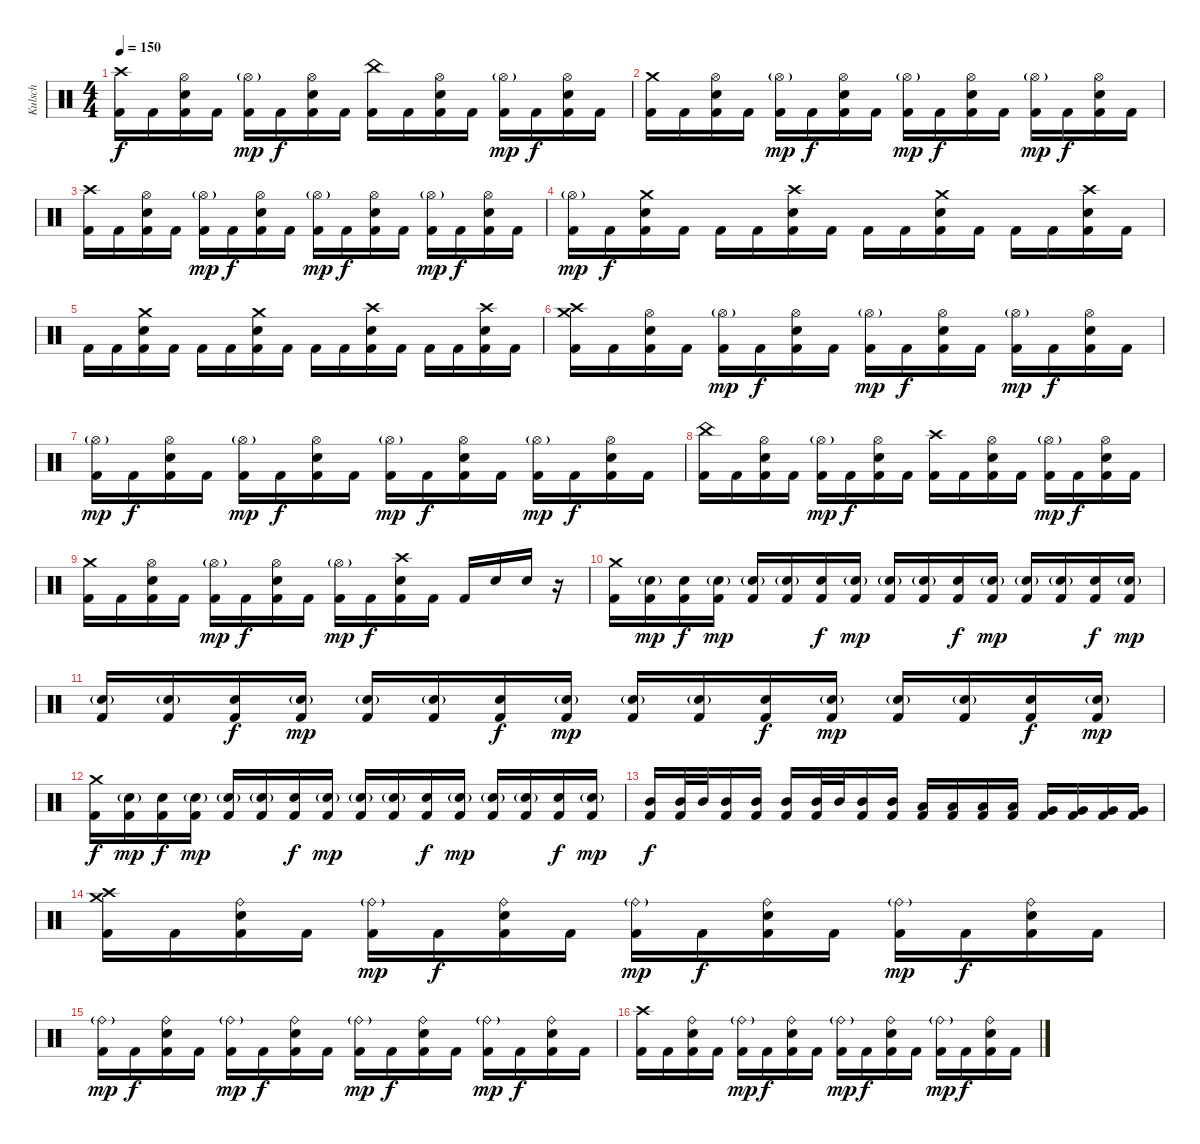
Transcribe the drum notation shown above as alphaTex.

\track ("Kulsch" "Kulsch") {instrument percussion}
\staff {score}
\articulation defaults
\ts (4 4)
\tempo 150
\clef neutral
\ks c
("Crash high (hit)" "Kick (hit) 2").16{dy f} "Kick (hit) 2".16 ("Hi-Hat (open)" "Snare (hit) 2" "Kick (hit) 2").16 "Kick (hit) 2".16 ("Hi-Hat (open)"{g} "Kick (hit) 2").16{dy mp} "Kick (hit) 2".16{dy f} ("Hi-Hat (open)" "Snare (hit) 2" "Kick (hit) 2").16 "Kick (hit) 2".16 ("China (hit)" "Kick (hit) 2").16 "Kick (hit) 2".16 ("Hi-Hat (open)" "Snare (hit) 2" "Kick (hit) 2").16 "Kick (hit) 2".16 ("Hi-Hat (open)"{g} "Kick (hit) 2").16{dy mp} "Kick (hit) 2".16{dy f} ("Hi-Hat (open)" "Snare (hit) 2" "Kick (hit) 2").16 "Kick (hit) 2".16 |
("Crash medium (hit)" "Kick (hit) 2").16 "Kick (hit) 2".16 ("Hi-Hat (open)" "Snare (hit) 2" "Kick (hit) 2").16 "Kick (hit) 2".16 ("Hi-Hat (open)"{g} "Kick (hit) 2").16{dy mp} "Kick (hit) 2".16{dy f} ("Hi-Hat (open)" "Snare (hit) 2" "Kick (hit) 2").16 "Kick (hit) 2".16 ("Hi-Hat (open)"{g} "Kick (hit) 2").16{dy mp} "Kick (hit) 2".16{dy f} ("Hi-Hat (open)" "Snare (hit) 2" "Kick (hit) 2").16 "Kick (hit) 2".16 ("Hi-Hat (open)"{g} "Kick (hit) 2").16{dy mp} "Kick (hit) 2".16{dy f} ("Hi-Hat (open)" "Snare (hit) 2" "Kick (hit) 2").16 "Kick (hit) 2".16 |
("Crash high (hit)" "Kick (hit) 2").16 "Kick (hit) 2".16 ("Hi-Hat (open)" "Snare (hit) 2" "Kick (hit) 2").16 "Kick (hit) 2".16 ("Hi-Hat (open)"{g} "Kick (hit) 2").16{dy mp} "Kick (hit) 2".16{dy f} ("Hi-Hat (open)" "Snare (hit) 2" "Kick (hit) 2").16 "Kick (hit) 2".16 ("Hi-Hat (open)"{g} "Kick (hit) 2").16{dy mp} "Kick (hit) 2".16{dy f} ("Hi-Hat (open)" "Snare (hit) 2" "Kick (hit) 2").16 "Kick (hit) 2".16 ("Hi-Hat (open)"{g} "Kick (hit) 2").16{dy mp} "Kick (hit) 2".16{dy f} ("Hi-Hat (open)" "Snare (hit) 2" "Kick (hit) 2").16 "Kick (hit) 2".16 |
("Hi-Hat (open)"{g} "Kick (hit) 2").16{dy mp} "Kick (hit) 2".16{dy f} ("Crash medium (hit)" "Snare (hit) 2" "Kick (hit) 2").16 "Kick (hit) 2".16 "Kick (hit) 2".16 "Kick (hit) 2".16 ("Crash high (hit)" "Snare (hit) 2" "Kick (hit) 2").16 "Kick (hit) 2".16 "Kick (hit) 2".16 "Kick (hit) 2".16 ("Crash medium (hit)" "Snare (hit) 2" "Kick (hit) 2").16 "Kick (hit) 2".16 "Kick (hit) 2".16 "Kick (hit) 2".16 ("Crash high (hit)" "Snare (hit) 2" "Kick (hit) 2").16 "Kick (hit) 2".16 |
"Kick (hit) 2".16 "Kick (hit) 2".16 ("Crash medium (hit)" "Snare (hit) 2" "Kick (hit) 2").16 "Kick (hit) 2".16 "Kick (hit) 2".16 "Kick (hit) 2".16 ("Crash medium (hit)" "Snare (hit) 2" "Kick (hit) 2").16 "Kick (hit) 2".16 "Kick (hit) 2".16 "Kick (hit) 2".16 ("Crash high (hit)" "Snare (hit) 2" "Kick (hit) 2").16 "Kick (hit) 2".16 "Kick (hit) 2".16 "Kick (hit) 2".16 ("Crash high (hit)" "Snare (hit) 2" "Kick (hit) 2").16 "Kick (hit) 2".16 |
("Crash medium (hit)" "Crash high (hit)" "Kick (hit) 2").16 "Kick (hit) 2".16 ("Hi-Hat (open)" "Snare (hit) 2" "Kick (hit) 2").16 "Kick (hit) 2".16 ("Hi-Hat (open)"{g} "Kick (hit) 2").16{dy mp} "Kick (hit) 2".16{dy f} ("Hi-Hat (open)" "Snare (hit) 2" "Kick (hit) 2").16 "Kick (hit) 2".16 ("Hi-Hat (open)"{g} "Kick (hit) 2").16{dy mp} "Kick (hit) 2".16{dy f} ("Hi-Hat (open)" "Snare (hit) 2" "Kick (hit) 2").16 "Kick (hit) 2".16 ("Hi-Hat (open)"{g} "Kick (hit) 2").16{dy mp} "Kick (hit) 2".16{dy f} ("Hi-Hat (open)" "Snare (hit) 2" "Kick (hit) 2").16 "Kick (hit) 2".16 |
("Hi-Hat (open)"{g} "Kick (hit) 2").16{dy mp} "Kick (hit) 2".16{dy f} ("Hi-Hat (open)" "Snare (hit) 2" "Kick (hit) 2").16 "Kick (hit) 2".16 ("Hi-Hat (open)"{g} "Kick (hit) 2").16{dy mp} "Kick (hit) 2".16{dy f} ("Hi-Hat (open)" "Snare (hit) 2" "Kick (hit) 2").16 "Kick (hit) 2".16 ("Hi-Hat (open)"{g} "Kick (hit) 2").16{dy mp} "Kick (hit) 2".16{dy f} ("Hi-Hat (open)" "Snare (hit) 2" "Kick (hit) 2").16 "Kick (hit) 2".16 ("Hi-Hat (open)"{g} "Kick (hit) 2").16{dy mp} "Kick (hit) 2".16{dy f} ("Hi-Hat (open)" "Snare (hit) 2" "Kick (hit) 2").16 "Kick (hit) 2".16 |
("China (hit)" "Kick (hit) 2").16 "Kick (hit) 2".16 ("Hi-Hat (open)" "Snare (hit) 2" "Kick (hit) 2").16 "Kick (hit) 2".16 ("Hi-Hat (open)"{g} "Kick (hit) 2").16{dy mp} "Kick (hit) 2".16{dy f} ("Hi-Hat (open)" "Snare (hit) 2" "Kick (hit) 2").16 "Kick (hit) 2".16 ("Crash high (hit)" "Kick (hit) 2").16 "Kick (hit) 2".16 ("Hi-Hat (open)" "Snare (hit) 2" "Kick (hit) 2").16 "Kick (hit) 2".16 ("Hi-Hat (open)"{g} "Kick (hit) 2").16{dy mp} "Kick (hit) 2".16{dy f} ("Hi-Hat (open)" "Snare (hit) 2" "Kick (hit) 2").16 "Kick (hit) 2".16 |
("Crash medium (hit)" "Kick (hit) 2").16 "Kick (hit) 2".16 ("Hi-Hat (open)" "Snare (hit) 2" "Kick (hit) 2").16 "Kick (hit) 2".16 ("Hi-Hat (open)"{g} "Kick (hit) 2").16{dy mp} "Kick (hit) 2".16{dy f} ("Hi-Hat (open)" "Snare (hit) 2" "Kick (hit) 2").16 "Kick (hit) 2".16 ("Hi-Hat (open)"{g} "Kick (hit) 2").16{dy mp} "Kick (hit) 2".16{dy f} ("Crash high (hit)" "Snare (hit) 2" "Kick (hit) 2").16 "Kick (hit) 2".16 "Kick (hit) 2".16 "Snare (hit) 2".16 "Snare (hit) 2".16 r.16 |
("Crash medium (hit)" "Kick (hit) 2").16 ("Snare (hit) 2"{g} "Kick (hit) 2").16{dy mp} ("Snare (hit) 2" "Kick (hit) 2").16{dy f} ("Snare (hit) 2"{g} "Kick (hit) 2").16{dy mp} ("Snare (hit) 2"{g} "Kick (hit) 2").16 ("Snare (hit) 2"{g} "Kick (hit) 2").16 ("Snare (hit) 2" "Kick (hit) 2").16{dy f} ("Snare (hit) 2"{g} "Kick (hit) 2").16{dy mp} ("Snare (hit) 2"{g} "Kick (hit) 2").16 ("Snare (hit) 2"{g} "Kick (hit) 2").16 ("Snare (hit) 2" "Kick (hit) 2").16{dy f} ("Snare (hit) 2"{g} "Kick (hit) 2").16{dy mp} ("Snare (hit) 2"{g} "Kick (hit) 2").16 ("Snare (hit) 2"{g} "Kick (hit) 2").16 ("Snare (hit) 2" "Kick (hit) 2").16{dy f} ("Snare (hit) 2"{g} "Kick (hit) 2").16{dy mp} |
("Snare (hit) 2"{g} "Kick (hit) 2").16 ("Snare (hit) 2"{g} "Kick (hit) 2").16 ("Snare (hit) 2" "Kick (hit) 2").16{dy f} ("Snare (hit) 2"{g} "Kick (hit) 2").16{dy mp} ("Snare (hit) 2"{g} "Kick (hit) 2").16 ("Snare (hit) 2"{g} "Kick (hit) 2").16 ("Snare (hit) 2" "Kick (hit) 2").16{dy f} ("Snare (hit) 2"{g} "Kick (hit) 2").16{dy mp} ("Snare (hit) 2"{g} "Kick (hit) 2").16 ("Snare (hit) 2"{g} "Kick (hit) 2").16 ("Snare (hit) 2" "Kick (hit) 2").16{dy f} ("Snare (hit) 2"{g} "Kick (hit) 2").16{dy mp} ("Snare (hit) 2"{g} "Kick (hit) 2").16 ("Snare (hit) 2"{g} "Kick (hit) 2").16 ("Snare (hit) 2" "Kick (hit) 2").16{dy f} ("Snare (hit) 2"{g} "Kick (hit) 2").16{dy mp} |
("Crash medium (hit)" "Kick (hit) 2").16{dy f} ("Snare (hit) 2"{g} "Kick (hit) 2").16{dy mp} ("Snare (hit) 2" "Kick (hit) 2").16{dy f} ("Snare (hit) 2"{g} "Kick (hit) 2").16{dy mp} ("Snare (hit) 2"{g} "Kick (hit) 2").16 ("Snare (hit) 2"{g} "Kick (hit) 2").16 ("Snare (hit) 2" "Kick (hit) 2").16{dy f} ("Snare (hit) 2"{g} "Kick (hit) 2").16{dy mp} ("Snare (hit) 2"{g} "Kick (hit) 2").16 ("Snare (hit) 2"{g} "Kick (hit) 2").16 ("Snare (hit) 2" "Kick (hit) 2").16{dy f} ("Snare (hit) 2"{g} "Kick (hit) 2").16{dy mp} ("Snare (hit) 2"{g} "Kick (hit) 2").16 ("Snare (hit) 2"{g} "Kick (hit) 2").16 ("Snare (hit) 2" "Kick (hit) 2").16{dy f} ("Snare (hit) 2"{g} "Kick (hit) 2").16{dy mp} |
("Mid Tom (hit)" "Kick (hit) 2").16{dy f} ("Mid Tom (hit)" "Kick (hit) 2").32 "Mid Tom (hit)".32 ("Mid Tom (hit)" "Kick (hit) 2").16 ("Mid Tom (hit)" "Kick (hit) 2").16 ("Mid Tom (hit)" "Kick (hit) 2").16 ("Mid Tom (hit)" "Kick (hit) 2").32 "Mid Tom (hit)".32 ("Mid Tom (hit)" "Kick (hit) 2").16 ("Mid Tom (hit)" "Kick (hit) 2").16 ("Low Tom (hit)" "Kick (hit) 2").16 ("Low Tom (hit)" "Kick (hit) 2").16 ("Low Tom (hit)" "Kick (hit) 2").16 ("Low Tom (hit)" "Kick (hit) 2").16 ("Very Low Tom (hit)" "Kick (hit) 2").16 ("Very Low Tom (hit)" "Kick (hit) 2").16 ("Very Low Tom (hit)" "Kick (hit) 2").16 ("Very Low Tom (hit)" "Kick (hit) 2").16 |
("Crash medium (hit)" "Crash high (hit)" "Kick (hit) 2").16 "Kick (hit) 2".16 ("Ride (bell)" "Snare (hit) 2" "Kick (hit) 2").16 "Kick (hit) 2".16 ("Ride (bell)"{g} "Kick (hit) 2").16{dy mp} "Kick (hit) 2".16{dy f} ("Ride (bell)" "Snare (hit) 2" "Kick (hit) 2").16 "Kick (hit) 2".16 ("Ride (bell)"{g} "Kick (hit) 2").16{dy mp} "Kick (hit) 2".16{dy f} ("Ride (bell)" "Snare (hit) 2" "Kick (hit) 2").16 "Kick (hit) 2".16 ("Ride (bell)"{g} "Kick (hit) 2").16{dy mp} "Kick (hit) 2".16{dy f} ("Ride (bell)" "Snare (hit) 2" "Kick (hit) 2").16 "Kick (hit) 2".16 |
("Ride (bell)"{g} "Kick (hit) 2").16{dy mp} "Kick (hit) 2".16{dy f} ("Ride (bell)" "Snare (hit) 2" "Kick (hit) 2").16 "Kick (hit) 2".16 ("Ride (bell)"{g} "Kick (hit) 2").16{dy mp} "Kick (hit) 2".16{dy f} ("Ride (bell)" "Snare (hit) 2" "Kick (hit) 2").16 "Kick (hit) 2".16 ("Ride (bell)"{g} "Kick (hit) 2").16{dy mp} "Kick (hit) 2".16{dy f} ("Ride (bell)" "Snare (hit) 2" "Kick (hit) 2").16 "Kick (hit) 2".16 ("Ride (bell)"{g} "Kick (hit) 2").16{dy mp} "Kick (hit) 2".16{dy f} ("Ride (bell)" "Snare (hit) 2" "Kick (hit) 2").16 "Kick (hit) 2".16 |
("Crash high (hit)" "Kick (hit) 2").16 "Kick (hit) 2".16 ("Ride (bell)" "Snare (hit) 2" "Kick (hit) 2").16 "Kick (hit) 2".16 ("Ride (bell)"{g} "Kick (hit) 2").16{dy mp} "Kick (hit) 2".16{dy f} ("Ride (bell)" "Snare (hit) 2" "Kick (hit) 2").16 "Kick (hit) 2".16 ("Ride (bell)"{g} "Kick (hit) 2").16{dy mp} "Kick (hit) 2".16{dy f} ("Ride (bell)" "Snare (hit) 2" "Kick (hit) 2").16 "Kick (hit) 2".16 ("Ride (bell)"{g} "Kick (hit) 2").16{dy mp} "Kick (hit) 2".16{dy f} ("Ride (bell)" "Snare (hit) 2" "Kick (hit) 2").16 "Kick (hit) 2".16
